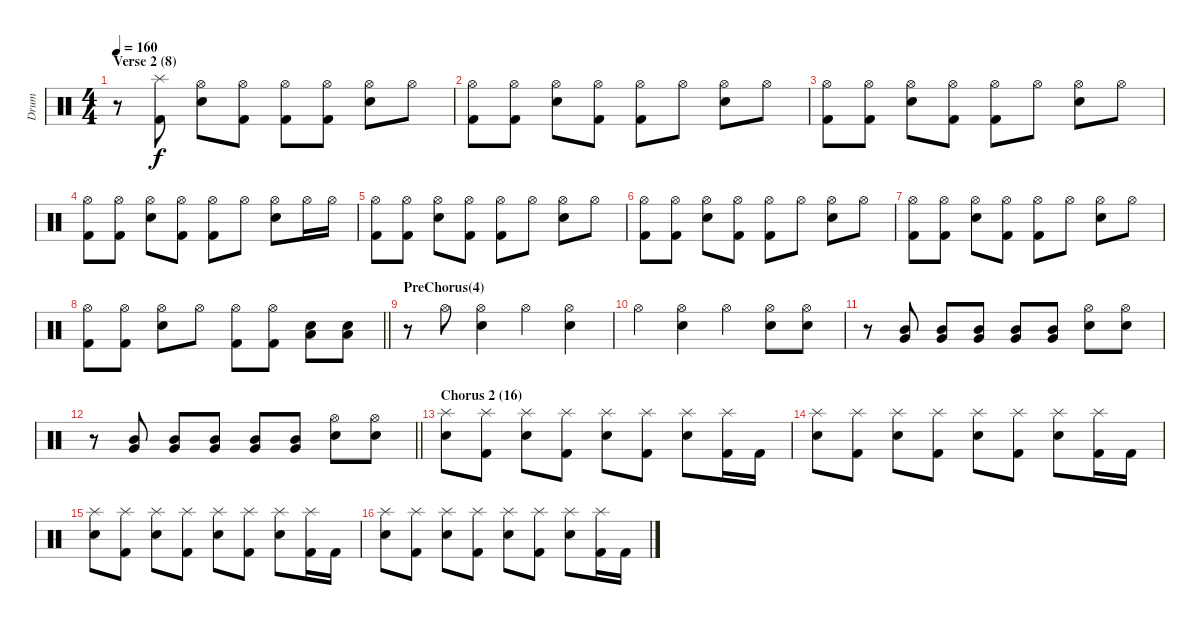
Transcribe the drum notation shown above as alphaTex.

\track ("Drum" "Drum") {instrument percussion}
\staff {score}
\articulation defaults
\ts (4 4)
\section ("" "Verse 2 (8)")
\tempo 160
\clef neutral
\ks c
r.8{dy f} ("Splash (hit)" "Kick (hit) 2").8 ("Hi-Hat (open)" "Snare (hit) 2").8 ("Hi-Hat (open)" "Kick (hit) 2").8 ("Hi-Hat (open)" "Kick (hit) 2").8 ("Hi-Hat (open)" "Kick (hit) 2").8 ("Hi-Hat (open)" "Snare (hit) 2").8 "Hi-Hat (open)".8 |
("Hi-Hat (open)" "Kick (hit) 2").8 ("Hi-Hat (open)" "Kick (hit) 2").8 ("Hi-Hat (open)" "Snare (hit) 2").8 ("Hi-Hat (open)" "Kick (hit) 2").8 ("Hi-Hat (open)" "Kick (hit) 2").8 "Hi-Hat (open)".8 ("Hi-Hat (open)" "Snare (hit) 2").8 "Hi-Hat (open)".8 |
("Hi-Hat (open)" "Kick (hit) 2").8 ("Hi-Hat (open)" "Kick (hit) 2").8 ("Hi-Hat (open)" "Snare (hit) 2").8 ("Hi-Hat (open)" "Kick (hit) 2").8 ("Hi-Hat (open)" "Kick (hit) 2").8 "Hi-Hat (open)".8 ("Hi-Hat (open)" "Snare (hit) 2").8 "Hi-Hat (open)".8 |
("Hi-Hat (open)" "Kick (hit) 2").8 ("Hi-Hat (open)" "Kick (hit) 2").8 ("Hi-Hat (open)" "Snare (hit) 2").8 ("Hi-Hat (open)" "Kick (hit) 2").8 ("Hi-Hat (open)" "Kick (hit) 2").8 "Hi-Hat (open)".8 ("Hi-Hat (open)" "Snare (hit) 2").8 "Hi-Hat (open)".16 "Hi-Hat (open)".16 |
("Hi-Hat (open)" "Kick (hit) 2").8 ("Hi-Hat (open)" "Kick (hit) 2").8 ("Hi-Hat (open)" "Snare (hit) 2").8 ("Hi-Hat (open)" "Kick (hit) 2").8 ("Hi-Hat (open)" "Kick (hit) 2").8 "Hi-Hat (open)".8 ("Hi-Hat (open)" "Snare (hit) 2").8 "Hi-Hat (open)".8 |
("Hi-Hat (open)" "Kick (hit) 2").8 ("Hi-Hat (open)" "Kick (hit) 2").8 ("Hi-Hat (open)" "Snare (hit) 2").8 ("Hi-Hat (open)" "Kick (hit) 2").8 ("Hi-Hat (open)" "Kick (hit) 2").8 "Hi-Hat (open)".8 ("Hi-Hat (open)" "Snare (hit) 2").8 "Hi-Hat (open)".8 |
("Hi-Hat (open)" "Kick (hit) 2").8 ("Hi-Hat (open)" "Kick (hit) 2").8 ("Hi-Hat (open)" "Snare (hit) 2").8 ("Hi-Hat (open)" "Kick (hit) 2").8 ("Hi-Hat (open)" "Kick (hit) 2").8 "Hi-Hat (open)".8 ("Hi-Hat (open)" "Snare (hit) 2").8 "Hi-Hat (open)".8 |
\barLineRight lightlight
("Hi-Hat (open)" "Kick (hit) 2").8 ("Hi-Hat (open)" "Kick (hit) 2").8 ("Hi-Hat (open)" "Snare (hit) 2").8 "Hi-Hat (open)".8 ("Hi-Hat (open)" "Kick (hit) 2").8 ("Hi-Hat (open)" "Kick (hit) 2").8 ("Low Floor Tom (hit)" "Snare (hit) 2").8 ("Low Floor Tom (hit)" "Snare (hit) 2").8 |
\section ("" "PreChorus(4)")
r.8 "Hi-Hat (open)".8 ("Hi-Hat (open)" "Snare (hit) 2").4 "Hi-Hat (open)".4 ("Hi-Hat (open)" "Snare (hit) 2").4 |
"Hi-Hat (open)".4 ("Hi-Hat (open)" "Snare (hit) 2").4 "Hi-Hat (open)".4 ("Hi-Hat (open)" "Snare (hit) 2").8 ("Hi-Hat (open)" "Snare (hit) 2").8 |
r.8 ("Mid Tom (hit)" "Very Low Tom (hit)").8 ("Mid Tom (hit)" "Very Low Tom (hit)").8 ("Mid Tom (hit)" "Very Low Tom (hit)").8 ("Mid Tom (hit)" "Very Low Tom (hit)").8 ("Mid Tom (hit)" "Very Low Tom (hit)").8 ("Hi-Hat (open)" "Snare (hit) 2").8 ("Hi-Hat (open)" "Snare (hit) 2").8 |
\barLineRight lightlight
r.8 ("Mid Tom (hit)" "Very Low Tom (hit)").8 ("Mid Tom (hit)" "Very Low Tom (hit)").8 ("Mid Tom (hit)" "Very Low Tom (hit)").8 ("Mid Tom (hit)" "Very Low Tom (hit)").8 ("Mid Tom (hit)" "Very Low Tom (hit)").8 ("Hi-Hat (open)" "Snare (hit) 2").8 ("Hi-Hat (open)" "Snare (hit) 2").8 |
\section ("" "Chorus 2 (16)")
("Splash (hit)" "Snare (hit) 2").8 ("Splash (hit)" "Kick (hit) 2").8 ("Splash (hit)" "Snare (hit) 2").8 ("Splash (hit)" "Kick (hit) 2").8 ("Splash (hit)" "Snare (hit) 2").8 ("Splash (hit)" "Kick (hit) 2").8 ("Splash (hit)" "Snare (hit) 2").8 ("Splash (hit)" "Kick (hit) 2").16 "Kick (hit) 2".16 |
("Splash (hit)" "Snare (hit) 2").8 ("Splash (hit)" "Kick (hit) 2").8 ("Splash (hit)" "Snare (hit) 2").8 ("Splash (hit)" "Kick (hit) 2").8 ("Splash (hit)" "Snare (hit) 2").8 ("Splash (hit)" "Kick (hit) 2").8 ("Splash (hit)" "Snare (hit) 2").8 ("Splash (hit)" "Kick (hit) 2").16 "Kick (hit) 2".16 |
("Splash (hit)" "Snare (hit) 2").8 ("Splash (hit)" "Kick (hit) 2").8 ("Splash (hit)" "Snare (hit) 2").8 ("Splash (hit)" "Kick (hit) 2").8 ("Splash (hit)" "Snare (hit) 2").8 ("Splash (hit)" "Kick (hit) 2").8 ("Splash (hit)" "Snare (hit) 2").8 ("Splash (hit)" "Kick (hit) 2").16 "Kick (hit) 2".16 |
("Splash (hit)" "Snare (hit) 2").8 ("Splash (hit)" "Kick (hit) 2").8 ("Splash (hit)" "Snare (hit) 2").8 ("Splash (hit)" "Kick (hit) 2").8 ("Splash (hit)" "Snare (hit) 2").8 ("Splash (hit)" "Kick (hit) 2").8 ("Splash (hit)" "Snare (hit) 2").8 ("Splash (hit)" "Kick (hit) 2").16 "Kick (hit) 2".16
